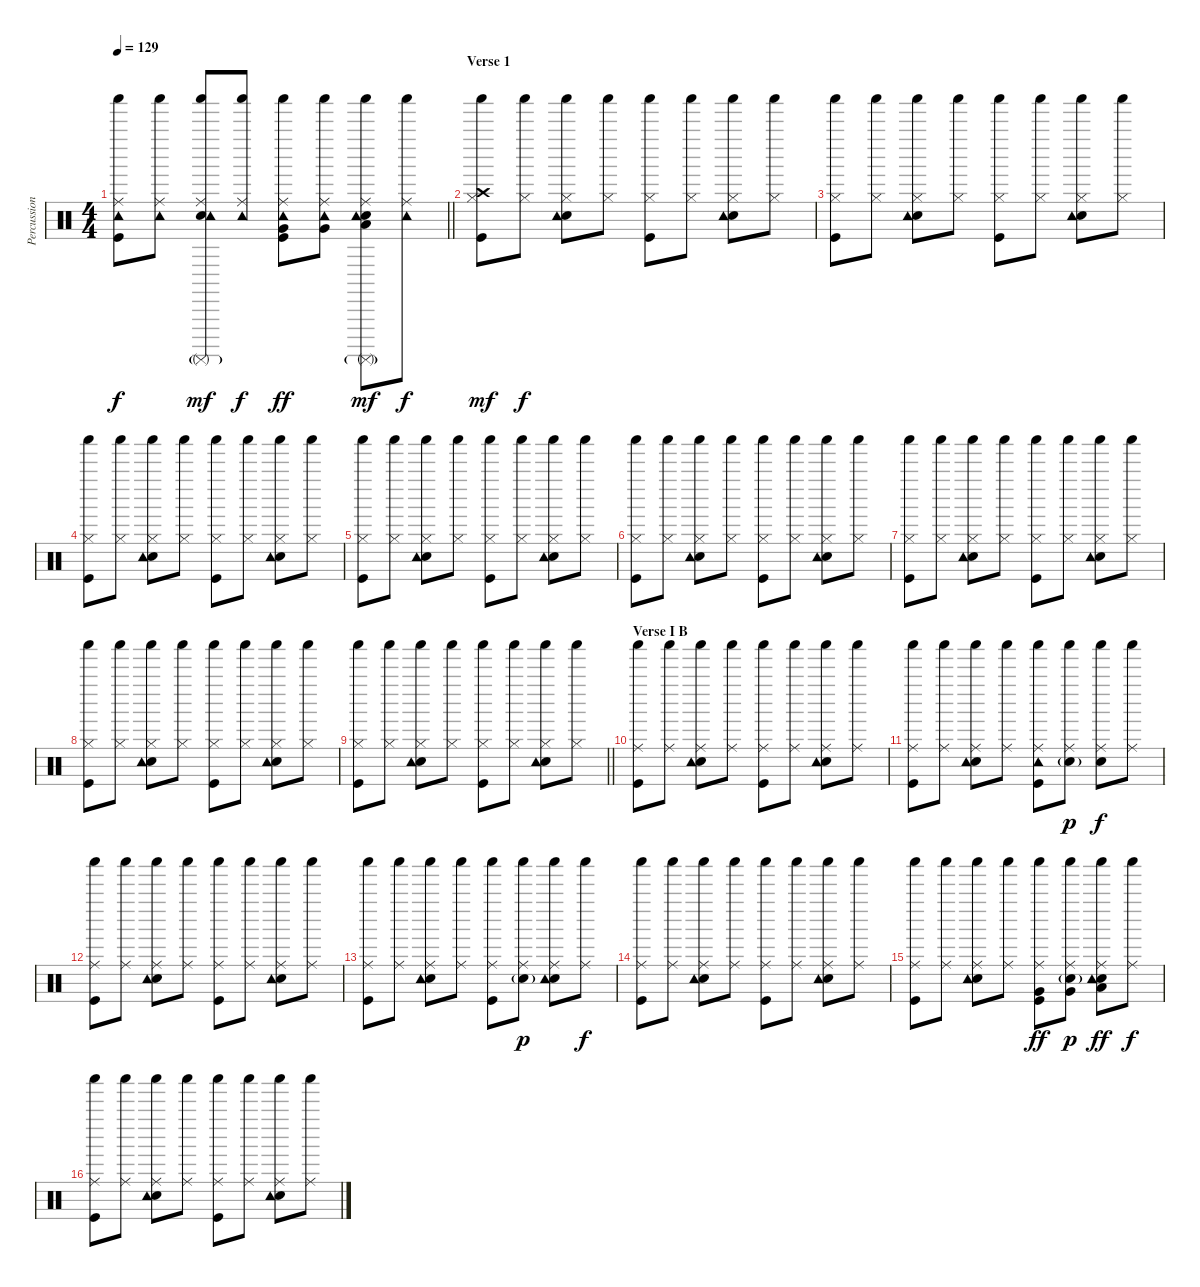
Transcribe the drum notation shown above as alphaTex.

\track ("Percussion" "Percussion") {instrument percussion}
\staff {score}
\articulation defaults
\ts (4 4)
\tempo 129
\clef neutral
\barLineRight lightlight
\ks c
("Shaker (hit)" "Ride (middle)" "Tambourine (hit)" "Kick (hit)").8{dy f} ("Shaker (hit)" "Ride (middle)" "Tambourine (hit)").8 ("Shaker (hit)" "Ride (middle)" "Snare (hit) 2" "Tambourine (hit)" "Surdo (mute)"{g}).8{dy mf} ("Shaker (hit)" "Ride (middle)" "Tambourine (hit)").8{dy f} ("Very Low Tom (hit)" "Shaker (hit)" "Ride (middle)" "Tambourine (hit)" "Kick (hit)").8{dy ff} ("Very Low Tom (hit)" "Shaker (hit)" "Ride (middle)" "Tambourine (hit)").8 ("Low Floor Tom (hit)" "Shaker (hit)" "Ride (middle)" "Snare (hit) 2" "Tambourine (hit)" "Surdo (mute)"{g}).8{dy mf} ("Shaker (hit)" "Ride (middle)" "Tambourine (hit)").8{dy f} |
\section ("" "Verse 1")
("Crash high (hit)" "Shaker (hit)" "Hi-Hat (closed)" "Kick (hit)").8{dy mf} ("Shaker (hit)" "Hi-Hat (closed)").8{dy f} ("Shaker (hit)" "Hi-Hat (closed)" "Snare (hit) 2" "Tambourine (hit)").8 ("Shaker (hit)" "Hi-Hat (closed)").8 ("Shaker (hit)" "Hi-Hat (closed)" "Kick (hit)").8 ("Shaker (hit)" "Hi-Hat (closed)").8 ("Shaker (hit)" "Hi-Hat (closed)" "Snare (hit) 2" "Tambourine (hit)").8 ("Shaker (hit)" "Hi-Hat (closed)").8 |
("Shaker (hit)" "Hi-Hat (closed)" "Kick (hit)").8 ("Shaker (hit)" "Hi-Hat (closed)").8 ("Shaker (hit)" "Hi-Hat (closed)" "Snare (hit) 2" "Tambourine (hit)").8 ("Shaker (hit)" "Hi-Hat (closed)").8 ("Shaker (hit)" "Hi-Hat (closed)" "Kick (hit)").8 ("Shaker (hit)" "Hi-Hat (closed)").8 ("Shaker (hit)" "Hi-Hat (closed)" "Snare (hit) 2" "Tambourine (hit)").8 ("Shaker (hit)" "Hi-Hat (closed)").8 |
("Shaker (hit)" "Hi-Hat (closed)" "Kick (hit)").8 ("Shaker (hit)" "Hi-Hat (closed)").8 ("Shaker (hit)" "Hi-Hat (closed)" "Snare (hit) 2" "Tambourine (hit)").8 ("Shaker (hit)" "Hi-Hat (closed)").8 ("Shaker (hit)" "Hi-Hat (closed)" "Kick (hit)").8 ("Shaker (hit)" "Hi-Hat (closed)").8 ("Shaker (hit)" "Hi-Hat (closed)" "Snare (hit) 2" "Tambourine (hit)").8 ("Shaker (hit)" "Hi-Hat (closed)").8 |
("Shaker (hit)" "Hi-Hat (closed)" "Kick (hit)").8 ("Shaker (hit)" "Hi-Hat (closed)").8 ("Shaker (hit)" "Hi-Hat (closed)" "Snare (hit) 2" "Tambourine (hit)").8 ("Shaker (hit)" "Hi-Hat (closed)").8 ("Shaker (hit)" "Hi-Hat (closed)" "Kick (hit)").8 ("Shaker (hit)" "Hi-Hat (closed)").8 ("Shaker (hit)" "Hi-Hat (closed)" "Snare (hit) 2" "Tambourine (hit)").8 ("Shaker (hit)" "Hi-Hat (closed)").8 |
("Shaker (hit)" "Hi-Hat (closed)" "Kick (hit)").8 ("Shaker (hit)" "Hi-Hat (closed)").8 ("Shaker (hit)" "Hi-Hat (closed)" "Snare (hit) 2" "Tambourine (hit)").8 ("Shaker (hit)" "Hi-Hat (closed)").8 ("Shaker (hit)" "Hi-Hat (closed)" "Kick (hit)").8 ("Shaker (hit)" "Hi-Hat (closed)").8 ("Shaker (hit)" "Hi-Hat (closed)" "Snare (hit) 2" "Tambourine (hit)").8 ("Shaker (hit)" "Hi-Hat (closed)").8 |
("Shaker (hit)" "Hi-Hat (closed)" "Kick (hit)").8 ("Shaker (hit)" "Hi-Hat (closed)").8 ("Shaker (hit)" "Hi-Hat (closed)" "Snare (hit) 2" "Tambourine (hit)").8 ("Shaker (hit)" "Hi-Hat (closed)").8 ("Shaker (hit)" "Hi-Hat (closed)" "Kick (hit)").8 ("Shaker (hit)" "Hi-Hat (closed)").8 ("Shaker (hit)" "Hi-Hat (closed)" "Snare (hit) 2" "Tambourine (hit)").8 ("Shaker (hit)" "Hi-Hat (closed)").8 |
("Shaker (hit)" "Hi-Hat (closed)" "Kick (hit)").8 ("Shaker (hit)" "Hi-Hat (closed)").8 ("Shaker (hit)" "Hi-Hat (closed)" "Snare (hit) 2" "Tambourine (hit)").8 ("Shaker (hit)" "Hi-Hat (closed)").8 ("Shaker (hit)" "Hi-Hat (closed)" "Kick (hit)").8 ("Shaker (hit)" "Hi-Hat (closed)").8 ("Shaker (hit)" "Hi-Hat (closed)" "Snare (hit) 2" "Tambourine (hit)").8 ("Shaker (hit)" "Hi-Hat (closed)").8 |
\barLineRight lightlight
("Shaker (hit)" "Hi-Hat (closed)" "Kick (hit)").8 ("Shaker (hit)" "Hi-Hat (closed)").8 ("Shaker (hit)" "Hi-Hat (closed)" "Snare (hit) 2" "Tambourine (hit)").8 ("Shaker (hit)" "Hi-Hat (closed)").8 ("Shaker (hit)" "Hi-Hat (closed)" "Kick (hit)").8 ("Shaker (hit)" "Hi-Hat (closed)").8 ("Shaker (hit)" "Hi-Hat (closed)" "Snare (hit) 2" "Tambourine (hit)").8 ("Shaker (hit)" "Hi-Hat (closed)").8 |
\section ("" "Verse I B")
("Shaker (hit)" "Ride (middle)" "Kick (hit)").8 ("Shaker (hit)" "Ride (middle)").8 ("Shaker (hit)" "Ride (middle)" "Snare (hit) 2" "Tambourine (hit)").8 ("Shaker (hit)" "Ride (middle)").8 ("Shaker (hit)" "Ride (middle)" "Kick (hit)").8 ("Shaker (hit)" "Ride (middle)").8 ("Shaker (hit)" "Ride (middle)" "Snare (hit) 2" "Tambourine (hit)").8 ("Shaker (hit)" "Ride (middle)").8 |
("Shaker (hit)" "Ride (middle)" "Kick (hit)").8 ("Shaker (hit)" "Ride (middle)").8 ("Shaker (hit)" "Ride (middle)" "Snare (hit) 2" "Tambourine (hit)").8 ("Shaker (hit)" "Ride (middle)").8 ("Shaker (hit)" "Ride (middle)" "Tambourine (hit)" "Kick (hit)").8 ("Shaker (hit)" "Ride (middle)" "Electric Snare (hit)"{g}).8{dy p} ("Shaker (hit)" "Ride (middle)" "Snare (hit) 2").8{dy f} ("Shaker (hit)" "Ride (middle)").8 |
("Shaker (hit)" "Ride (middle)" "Kick (hit)").8 ("Shaker (hit)" "Ride (middle)").8 ("Shaker (hit)" "Ride (middle)" "Snare (hit) 2" "Tambourine (hit)").8 ("Shaker (hit)" "Ride (middle)").8 ("Shaker (hit)" "Ride (middle)" "Kick (hit)").8 ("Shaker (hit)" "Ride (middle)").8 ("Shaker (hit)" "Ride (middle)" "Snare (hit) 2" "Tambourine (hit)").8 ("Shaker (hit)" "Ride (middle)").8 |
("Shaker (hit)" "Ride (middle)" "Kick (hit)").8 ("Shaker (hit)" "Ride (middle)").8 ("Shaker (hit)" "Ride (middle)" "Snare (hit) 2" "Tambourine (hit)").8 ("Shaker (hit)" "Ride (middle)").8 ("Shaker (hit)" "Ride (middle)" "Kick (hit)").8 ("Shaker (hit)" "Ride (middle)" "Electric Snare (hit)"{g}).8{dy p} ("Shaker (hit)" "Ride (middle)" "Snare (hit) 2" "Tambourine (hit)").8 ("Shaker (hit)" "Ride (middle)").8{dy f} |
("Shaker (hit)" "Ride (middle)" "Kick (hit)").8 ("Shaker (hit)" "Ride (middle)").8 ("Shaker (hit)" "Ride (middle)" "Snare (hit) 2" "Tambourine (hit)").8 ("Shaker (hit)" "Ride (middle)").8 ("Shaker (hit)" "Ride (middle)" "Kick (hit)").8 ("Shaker (hit)" "Ride (middle)").8 ("Shaker (hit)" "Ride (middle)" "Snare (hit) 2" "Tambourine (hit)").8 ("Shaker (hit)" "Ride (middle)").8 |
("Shaker (hit)" "Ride (middle)" "Kick (hit)").8 ("Shaker (hit)" "Ride (middle)").8 ("Shaker (hit)" "Ride (middle)" "Snare (hit) 2" "Tambourine (hit)").8 ("Shaker (hit)" "Ride (middle)").8 ("Very Low Tom (hit)" "Shaker (hit)" "Ride (middle)" "Kick (hit)").8{dy ff} ("Very Low Tom (hit)" "Shaker (hit)" "Ride (middle)" "Electric Snare (hit)"{g}).8{dy p} ("Low Floor Tom (hit)" "Shaker (hit)" "Ride (middle)" "Snare (hit) 2" "Tambourine (hit)").8{dy ff} ("Shaker (hit)" "Ride (middle)").8{dy f} |
("Shaker (hit)" "Ride (middle)" "Kick (hit)").8 ("Shaker (hit)" "Ride (middle)").8 ("Shaker (hit)" "Ride (middle)" "Snare (hit) 2" "Tambourine (hit)").8 ("Shaker (hit)" "Ride (middle)").8 ("Shaker (hit)" "Ride (middle)" "Kick (hit)").8 ("Shaker (hit)" "Ride (middle)").8 ("Shaker (hit)" "Ride (middle)" "Snare (hit) 2" "Tambourine (hit)").8 ("Shaker (hit)" "Ride (middle)").8
